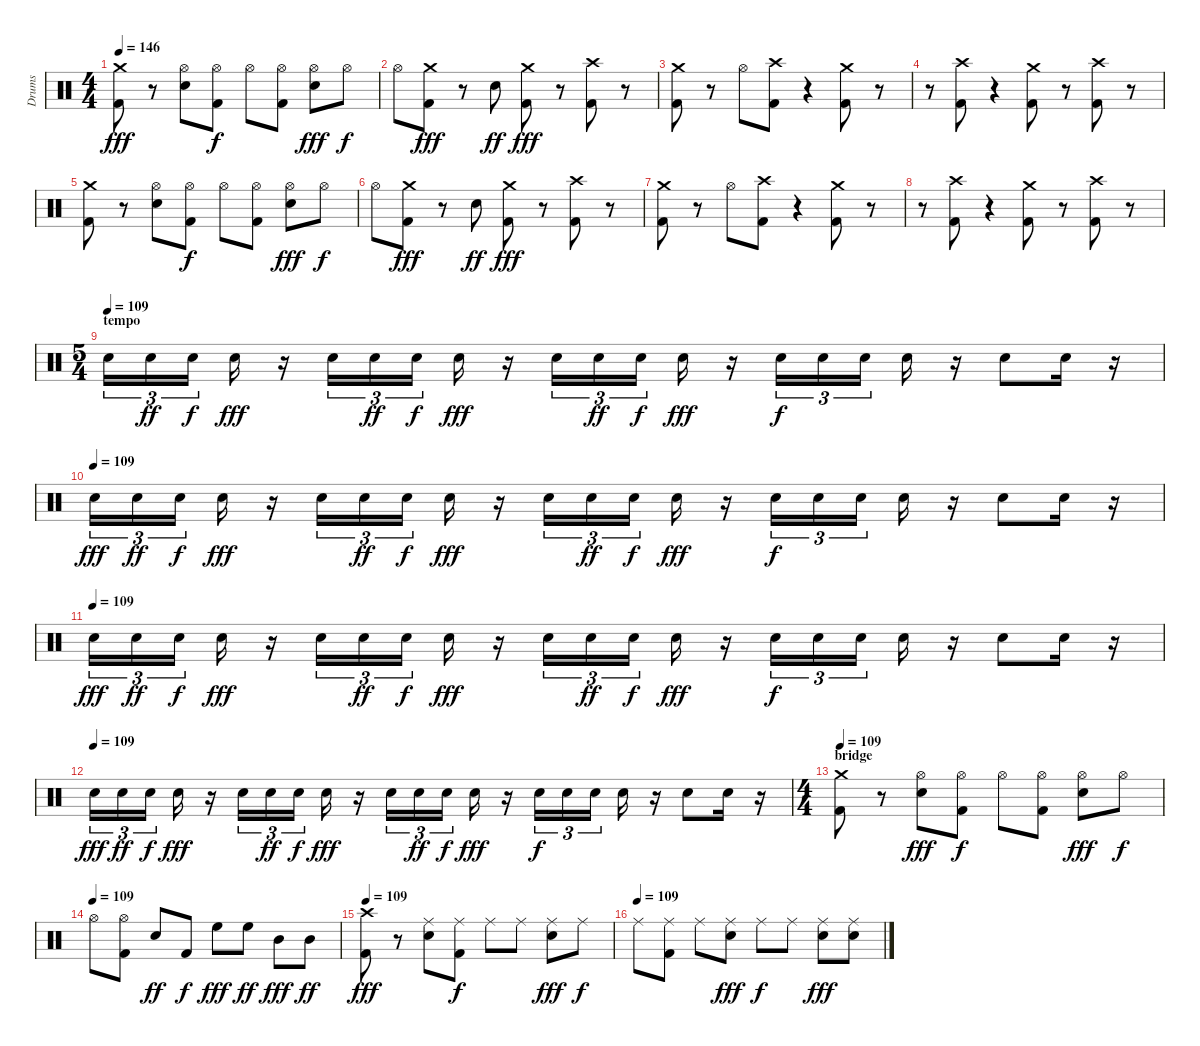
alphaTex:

\track ("Drums" "Drums") {instrument percussion}
\staff {score}
\articulation defaults
\ts (4 4)
\tempo 146
\clef neutral
\ks c
("Kick (hit) 2" "Crash medium (hit)").8{dy fff} r.8 ("Snare (hit) 2" "Hi-Hat (open)").8 ("Kick (hit) 2" "Hi-Hat (open)").8{dy f} "Hi-Hat (open)".8 ("Kick (hit) 2" "Hi-Hat (open)").8 ("Snare (hit) 2" "Hi-Hat (open)").8{dy fff} "Hi-Hat (open)".8{dy f} |
"Hi-Hat (open)".8 ("Kick (hit) 2" "Crash medium (hit)").8{dy fff} r.8 "Snare (hit) 2".8{dy ff} ("Kick (hit) 2" "Crash medium (hit)").8{dy fff} r.8 ("Kick (hit) 2" "Crash high (hit)").8 r.8 |
("Kick (hit) 2" "Crash medium (hit)").8 r.8 "Hi-Hat (open)".8 ("Kick (hit) 2" "Crash high (hit)").8 r.4 ("Kick (hit) 2" "Crash medium (hit)").8 r.8 |
r.8 ("Kick (hit) 2" "Crash high (hit)").8 r.4 ("Kick (hit) 2" "Crash medium (hit)").8 r.8 ("Kick (hit) 2" "Crash high (hit)").8 r.8 |
("Kick (hit) 2" "Crash medium (hit)").8 r.8 ("Snare (hit) 2" "Hi-Hat (open)").8 ("Kick (hit) 2" "Hi-Hat (open)").8{dy f} "Hi-Hat (open)".8 ("Kick (hit) 2" "Hi-Hat (open)").8 ("Snare (hit) 2" "Hi-Hat (open)").8{dy fff} "Hi-Hat (open)".8{dy f} |
"Hi-Hat (open)".8 ("Kick (hit) 2" "Crash medium (hit)").8{dy fff} r.8 "Snare (hit) 2".8{dy ff} ("Kick (hit) 2" "Crash medium (hit)").8{dy fff} r.8 ("Kick (hit) 2" "Crash high (hit)").8 r.8 |
("Kick (hit) 2" "Crash medium (hit)").8 r.8 "Hi-Hat (open)".8 ("Kick (hit) 2" "Crash high (hit)").8 r.4 ("Kick (hit) 2" "Crash medium (hit)").8 r.8 |
r.8 ("Kick (hit) 2" "Crash high (hit)").8 r.4 ("Kick (hit) 2" "Crash medium (hit)").8 r.8 ("Kick (hit) 2" "Crash high (hit)").8 r.8 |
\ts (5 4)
\section ("" "tempo")
\tempo (109)
"Snare (hit) 2".16{tu (3 2)} "Snare (hit) 2".16{tu (3 2) dy ff} "Snare (hit) 2".16{tu (3 2) dy f} "Snare (hit) 2".16{dy fff} r.16 "Snare (hit) 2".16{tu (3 2)} "Snare (hit) 2".16{tu (3 2) dy ff} "Snare (hit) 2".16{tu (3 2) dy f} "Snare (hit) 2".16{dy fff} r.16 "Snare (hit) 2".16{tu (3 2)} "Snare (hit) 2".16{tu (3 2) dy ff} "Snare (hit) 2".16{tu (3 2) dy f} "Snare (hit) 2".16{dy fff} r.16 "Snare (hit) 2".16{tu (3 2) dy f} "Snare (hit) 2".16{tu (3 2)} "Snare (hit) 2".16{tu (3 2)} "Snare (hit) 2".16 r.16 "Snare (hit) 2".8 "Snare (hit) 2".16 r.16 |
\tempo (109)
"Snare (hit) 2".16{tu (3 2) dy fff} "Snare (hit) 2".16{tu (3 2) dy ff} "Snare (hit) 2".16{tu (3 2) dy f} "Snare (hit) 2".16{dy fff} r.16 "Snare (hit) 2".16{tu (3 2)} "Snare (hit) 2".16{tu (3 2) dy ff} "Snare (hit) 2".16{tu (3 2) dy f} "Snare (hit) 2".16{dy fff} r.16 "Snare (hit) 2".16{tu (3 2)} "Snare (hit) 2".16{tu (3 2) dy ff} "Snare (hit) 2".16{tu (3 2) dy f} "Snare (hit) 2".16{dy fff} r.16 "Snare (hit) 2".16{tu (3 2) dy f} "Snare (hit) 2".16{tu (3 2)} "Snare (hit) 2".16{tu (3 2)} "Snare (hit) 2".16 r.16 "Snare (hit) 2".8 "Snare (hit) 2".16 r.16 |
\tempo (109)
"Snare (hit) 2".16{tu (3 2) dy fff} "Snare (hit) 2".16{tu (3 2) dy ff} "Snare (hit) 2".16{tu (3 2) dy f} "Snare (hit) 2".16{dy fff} r.16 "Snare (hit) 2".16{tu (3 2)} "Snare (hit) 2".16{tu (3 2) dy ff} "Snare (hit) 2".16{tu (3 2) dy f} "Snare (hit) 2".16{dy fff} r.16 "Snare (hit) 2".16{tu (3 2)} "Snare (hit) 2".16{tu (3 2) dy ff} "Snare (hit) 2".16{tu (3 2) dy f} "Snare (hit) 2".16{dy fff} r.16 "Snare (hit) 2".16{tu (3 2) dy f} "Snare (hit) 2".16{tu (3 2)} "Snare (hit) 2".16{tu (3 2)} "Snare (hit) 2".16 r.16 "Snare (hit) 2".8 "Snare (hit) 2".16 r.16 |
\tempo (109)
"Snare (hit) 2".16{tu (3 2) dy fff} "Snare (hit) 2".16{tu (3 2) dy ff} "Snare (hit) 2".16{tu (3 2) dy f} "Snare (hit) 2".16{dy fff} r.16 "Snare (hit) 2".16{tu (3 2)} "Snare (hit) 2".16{tu (3 2) dy ff} "Snare (hit) 2".16{tu (3 2) dy f} "Snare (hit) 2".16{dy fff} r.16 "Snare (hit) 2".16{tu (3 2)} "Snare (hit) 2".16{tu (3 2) dy ff} "Snare (hit) 2".16{tu (3 2) dy f} "Snare (hit) 2".16{dy fff} r.16 "Snare (hit) 2".16{tu (3 2) dy f} "Snare (hit) 2".16{tu (3 2)} "Snare (hit) 2".16{tu (3 2)} "Snare (hit) 2".16 r.16 "Snare (hit) 2".8 "Snare (hit) 2".16 r.16 |
\ts (4 4)
\section ("" "bridge")
\tempo 109
("Kick (hit) 2" "Crash medium (hit)").8 r.8 ("Snare (hit) 2" "Hi-Hat (open)").8{dy fff} ("Kick (hit) 2" "Hi-Hat (open)").8{dy f} "Hi-Hat (open)".8 ("Kick (hit) 2" "Hi-Hat (open)").8 ("Snare (hit) 2" "Hi-Hat (open)").8{dy fff} "Hi-Hat (open)".8{dy f} |
\tempo (109)
"Hi-Hat (open)".8 ("Kick (hit) 2" "Hi-Hat (open)").8 "Snare (hit) 2".8{dy ff} "Kick (hit) 2".8{dy f} "High Floor Tom (hit)".8{dy fff} "High Floor Tom (hit)".8{dy ff} "Mid Tom (hit)".8{dy fff} "Mid Tom (hit)".8{dy ff} |
\tempo 109
("Kick (hit) 2" "Crash high (hit)").8{dy fff} r.8 ("Snare (hit) 2" "Ride (middle)").8 ("Kick (hit) 2" "Ride (middle)").8{dy f} "Ride (middle)".8 "Ride (middle)".8 ("Snare (hit) 2" "Ride (middle)").8{dy fff} "Ride (middle)".8{dy f} |
\tempo (109)
"Ride (middle)".8 ("Kick (hit) 2" "Ride (middle)").8 "Ride (middle)".8 ("Snare (hit) 2" "Ride (middle)").8{dy fff} "Ride (middle)".8{dy f} "Ride (middle)".8 ("Snare (hit) 2" "Ride (middle)").8{dy fff} ("Snare (hit) 2" "Ride (middle)").8
